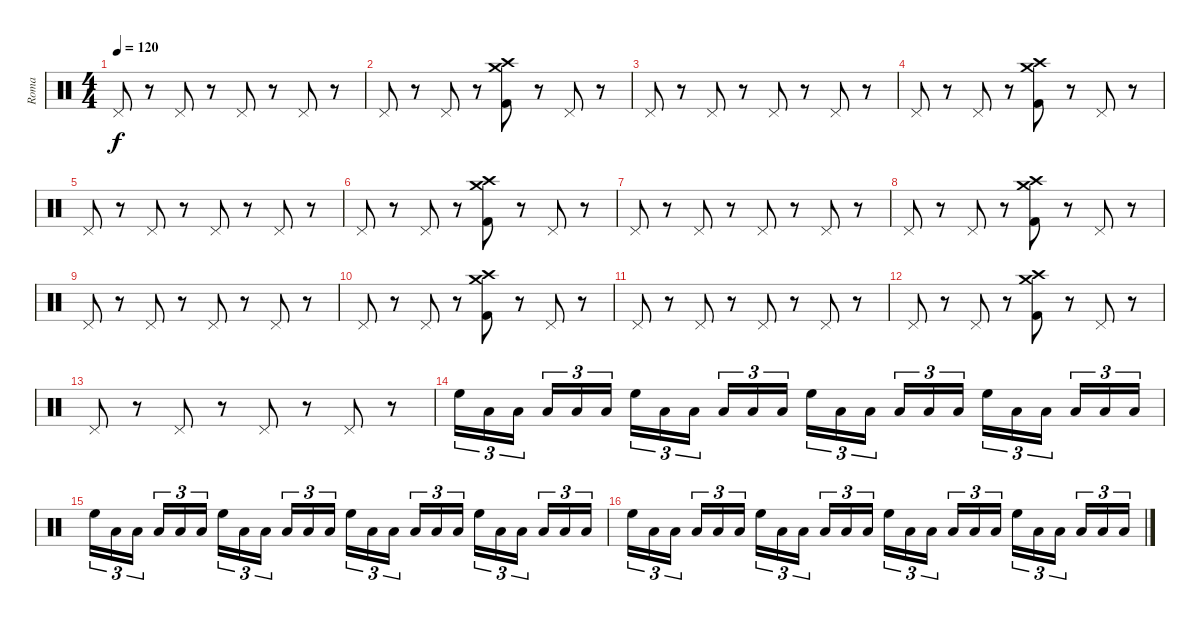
\track ("Roma" "Roma") {instrument percussion}
\staff {score}
\articulation defaults
\ts (4 4)
\tempo 120
\clef neutral
\ks c "Pedal Hi-Hat (hit)".8{dy f}
r.8 "Pedal Hi-Hat (hit)".8 r.8 "Pedal Hi-Hat (hit)".8 r.8 "Pedal Hi-Hat (hit)".8 r.8 |
"Pedal Hi-Hat (hit)".8 r.8 "Pedal Hi-Hat (hit)".8 r.8 ("Crash medium (hit)" "Crash high (hit)" "Kick (hit) 2").8 r.8 "Pedal Hi-Hat (hit)".8 r.8 |
"Pedal Hi-Hat (hit)".8 r.8 "Pedal Hi-Hat (hit)".8 r.8 "Pedal Hi-Hat (hit)".8 r.8 "Pedal Hi-Hat (hit)".8 r.8 |
"Pedal Hi-Hat (hit)".8 r.8 "Pedal Hi-Hat (hit)".8 r.8 ("Crash medium (hit)" "Crash high (hit)" "Kick (hit) 2").8 r.8 "Pedal Hi-Hat (hit)".8 r.8 |
"Pedal Hi-Hat (hit)".8 r.8 "Pedal Hi-Hat (hit)".8 r.8 "Pedal Hi-Hat (hit)".8 r.8 "Pedal Hi-Hat (hit)".8 r.8 |
"Pedal Hi-Hat (hit)".8 r.8 "Pedal Hi-Hat (hit)".8 r.8 ("Crash medium (hit)" "Crash high (hit)" "Kick (hit) 2").8 r.8 "Pedal Hi-Hat (hit)".8 r.8 |
"Pedal Hi-Hat (hit)".8 r.8 "Pedal Hi-Hat (hit)".8 r.8 "Pedal Hi-Hat (hit)".8 r.8 "Pedal Hi-Hat (hit)".8 r.8 |
"Pedal Hi-Hat (hit)".8 r.8 "Pedal Hi-Hat (hit)".8 r.8 ("Crash medium (hit)" "Crash high (hit)" "Kick (hit) 2").8 r.8 "Pedal Hi-Hat (hit)".8 r.8 |
"Pedal Hi-Hat (hit)".8 r.8 "Pedal Hi-Hat (hit)".8 r.8 "Pedal Hi-Hat (hit)".8 r.8 "Pedal Hi-Hat (hit)".8 r.8 |
"Pedal Hi-Hat (hit)".8 r.8 "Pedal Hi-Hat (hit)".8 r.8 ("Crash medium (hit)" "Crash high (hit)" "Kick (hit) 2").8 r.8 "Pedal Hi-Hat (hit)".8 r.8 |
"Pedal Hi-Hat (hit)".8 r.8 "Pedal Hi-Hat (hit)".8 r.8 "Pedal Hi-Hat (hit)".8 r.8 "Pedal Hi-Hat (hit)".8 r.8 |
"Pedal Hi-Hat (hit)".8 r.8 "Pedal Hi-Hat (hit)".8 r.8 ("Crash medium (hit)" "Crash high (hit)" "Kick (hit) 2").8 r.8 "Pedal Hi-Hat (hit)".8 r.8 |
"Pedal Hi-Hat (hit)".8 r.8 "Pedal Hi-Hat (hit)".8 r.8 "Pedal Hi-Hat (hit)".8 r.8 "Pedal Hi-Hat (hit)".8 r.8 |
"High Floor Tom (hit)".16{tu (3 2)} "Low Tom (hit)".16{tu (3 2)} "Low Tom (hit)".16{tu (3 2) beam splitsecondary} "Low Tom (hit)".16{tu (3 2)} "Low Tom (hit)".16{tu (3 2)} "Low Tom (hit)".16{tu (3 2)} "High Floor Tom (hit)".16{tu (3 2)} "Low Tom (hit)".16{tu (3 2)} "Low Tom (hit)".16{tu (3 2) beam splitsecondary} "Low Tom (hit)".16{tu (3 2)} "Low Tom (hit)".16{tu (3 2)} "Low Tom (hit)".16{tu (3 2)} "High Floor Tom (hit)".16{tu (3 2)} "Low Tom (hit)".16{tu (3 2)} "Low Tom (hit)".16{tu (3 2) beam splitsecondary} "Low Tom (hit)".16{tu (3 2)} "Low Tom (hit)".16{tu (3 2)} "Low Tom (hit)".16{tu (3 2)} "High Floor Tom (hit)".16{tu (3 2)} "Low Tom (hit)".16{tu (3 2)} "Low Tom (hit)".16{tu (3 2) beam splitsecondary} "Low Tom (hit)".16{tu (3 2)} "Low Tom (hit)".16{tu (3 2)} "Low Tom (hit)".16{tu (3 2)} |
"High Floor Tom (hit)".16{tu (3 2)} "Low Tom (hit)".16{tu (3 2)} "Low Tom (hit)".16{tu (3 2) beam splitsecondary} "Low Tom (hit)".16{tu (3 2)} "Low Tom (hit)".16{tu (3 2)} "Low Tom (hit)".16{tu (3 2)} "High Floor Tom (hit)".16{tu (3 2)} "Low Tom (hit)".16{tu (3 2)} "Low Tom (hit)".16{tu (3 2) beam splitsecondary} "Low Tom (hit)".16{tu (3 2)} "Low Tom (hit)".16{tu (3 2)} "Low Tom (hit)".16{tu (3 2)} "High Floor Tom (hit)".16{tu (3 2)} "Low Tom (hit)".16{tu (3 2)} "Low Tom (hit)".16{tu (3 2) beam splitsecondary} "Low Tom (hit)".16{tu (3 2)} "Low Tom (hit)".16{tu (3 2)} "Low Tom (hit)".16{tu (3 2)} "High Floor Tom (hit)".16{tu (3 2)} "Low Tom (hit)".16{tu (3 2)} "Low Tom (hit)".16{tu (3 2) beam splitsecondary} "Low Tom (hit)".16{tu (3 2)} "Low Tom (hit)".16{tu (3 2)} "Low Tom (hit)".16{tu (3 2)} |
"High Floor Tom (hit)".16{tu (3 2)} "Low Tom (hit)".16{tu (3 2)} "Low Tom (hit)".16{tu (3 2) beam splitsecondary} "Low Tom (hit)".16{tu (3 2)} "Low Tom (hit)".16{tu (3 2)} "Low Tom (hit)".16{tu (3 2)} "High Floor Tom (hit)".16{tu (3 2)} "Low Tom (hit)".16{tu (3 2)} "Low Tom (hit)".16{tu (3 2) beam splitsecondary} "Low Tom (hit)".16{tu (3 2)} "Low Tom (hit)".16{tu (3 2)} "Low Tom (hit)".16{tu (3 2)} "High Floor Tom (hit)".16{tu (3 2)} "Low Tom (hit)".16{tu (3 2)} "Low Tom (hit)".16{tu (3 2) beam splitsecondary} "Low Tom (hit)".16{tu (3 2)} "Low Tom (hit)".16{tu (3 2)} "Low Tom (hit)".16{tu (3 2)} "High Floor Tom (hit)".16{tu (3 2)} "Low Tom (hit)".16{tu (3 2)} "Low Tom (hit)".16{tu (3 2) beam splitsecondary} "Low Tom (hit)".16{tu (3 2)} "Low Tom (hit)".16{tu (3 2)} "Low Tom (hit)".16{tu (3 2)}
